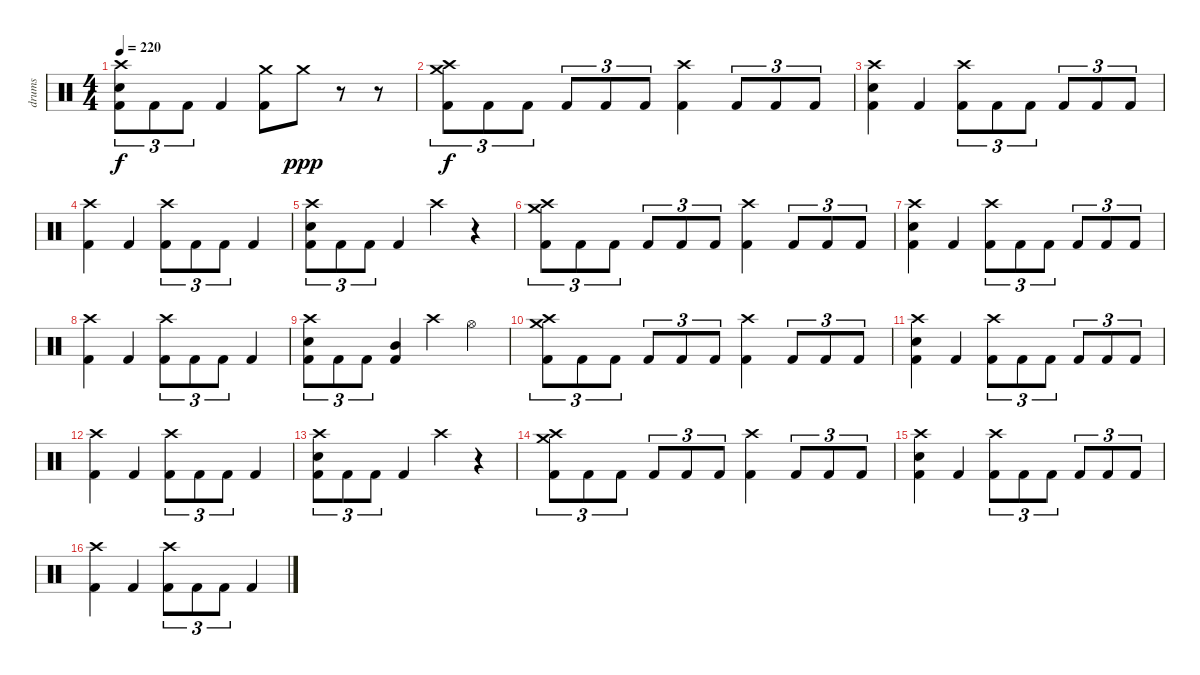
\track ("drums" "drums") {instrument percussion}
\staff {score}
\articulation defaults
\ts (4 4)
\tempo 220
\clef neutral
\ks c
("Crash high (hit)" "Electric Snare (hit)" "Kick (hit) 2").8{tu (3 2) dy f} "Kick (hit) 2".8{tu (3 2)} "Kick (hit) 2".8{tu (3 2)} "Kick (hit) 2".4 ("Crash medium (hit)" "Kick (hit) 2").8 "Crash medium (hit)".8{dy ppp} r.8 r.8 |
("Crash high (hit)" "Crash medium (hit)" "Kick (hit) 2").8{tu (3 2) dy f} "Kick (hit) 2".8{tu (3 2)} "Kick (hit) 2".8{tu (3 2)} "Kick (hit) 2".8{tu (3 2)} "Kick (hit) 2".8{tu (3 2)} "Kick (hit) 2".8{tu (3 2)} ("Crash high (hit)" "Kick (hit) 2").4 "Kick (hit) 2".8{tu (3 2)} "Kick (hit) 2".8{tu (3 2)} "Kick (hit) 2".8{tu (3 2)} |
("Crash high (hit)" "Electric Snare (hit)" "Kick (hit) 2").4 "Kick (hit) 2".4 ("Crash high (hit)" "Kick (hit) 2").8{tu (3 2)} "Kick (hit) 2".8{tu (3 2)} "Kick (hit) 2".8{tu (3 2)} "Kick (hit) 2".8{tu (3 2)} "Kick (hit) 2".8{tu (3 2)} "Kick (hit) 2".8{tu (3 2)} |
("Crash high (hit)" "Kick (hit) 2").4 "Kick (hit) 2".4 ("Crash high (hit)" "Kick (hit) 2").8{tu (3 2)} "Kick (hit) 2".8{tu (3 2)} "Kick (hit) 2".8{tu (3 2)} "Kick (hit) 2".4 |
("Crash high (hit)" "Electric Snare (hit)" "Kick (hit) 2").8{tu (3 2)} "Kick (hit) 2".8{tu (3 2)} "Kick (hit) 2".8{tu (3 2)} "Kick (hit) 2".4 "Crash high (hit)".4 r.4 |
("Crash high (hit)" "Crash medium (hit)" "Kick (hit) 2").8{tu (3 2)} "Kick (hit) 2".8{tu (3 2)} "Kick (hit) 2".8{tu (3 2)} "Kick (hit) 2".8{tu (3 2)} "Kick (hit) 2".8{tu (3 2)} "Kick (hit) 2".8{tu (3 2)} ("Crash high (hit)" "Kick (hit) 2").4 "Kick (hit) 2".8{tu (3 2)} "Kick (hit) 2".8{tu (3 2)} "Kick (hit) 2".8{tu (3 2)} |
("Crash high (hit)" "Electric Snare (hit)" "Kick (hit) 2").4 "Kick (hit) 2".4 ("Crash high (hit)" "Kick (hit) 2").8{tu (3 2)} "Kick (hit) 2".8{tu (3 2)} "Kick (hit) 2".8{tu (3 2)} "Kick (hit) 2".8{tu (3 2)} "Kick (hit) 2".8{tu (3 2)} "Kick (hit) 2".8{tu (3 2)} |
("Crash high (hit)" "Kick (hit) 2").4 "Kick (hit) 2".4 ("Crash high (hit)" "Kick (hit) 2").8{tu (3 2)} "Kick (hit) 2".8{tu (3 2)} "Kick (hit) 2".8{tu (3 2)} "Kick (hit) 2".4 |
("Crash high (hit)" "Electric Snare (hit)" "Kick (hit) 2").8{tu (3 2)} "Kick (hit) 2".8{tu (3 2)} "Kick (hit) 2".8{tu (3 2)} ("Mid Tom (hit)" "Kick (hit) 2").4 "Crash high (hit)".4 "Hi-Hat (open)".4 |
("Crash high (hit)" "Crash medium (hit)" "Kick (hit) 2").8{tu (3 2)} "Kick (hit) 2".8{tu (3 2)} "Kick (hit) 2".8{tu (3 2)} "Kick (hit) 2".8{tu (3 2)} "Kick (hit) 2".8{tu (3 2)} "Kick (hit) 2".8{tu (3 2)} ("Crash high (hit)" "Kick (hit) 2").4 "Kick (hit) 2".8{tu (3 2)} "Kick (hit) 2".8{tu (3 2)} "Kick (hit) 2".8{tu (3 2)} |
("Crash high (hit)" "Electric Snare (hit)" "Kick (hit) 2").4 "Kick (hit) 2".4 ("Crash high (hit)" "Kick (hit) 2").8{tu (3 2)} "Kick (hit) 2".8{tu (3 2)} "Kick (hit) 2".8{tu (3 2)} "Kick (hit) 2".8{tu (3 2)} "Kick (hit) 2".8{tu (3 2)} "Kick (hit) 2".8{tu (3 2)} |
("Crash high (hit)" "Kick (hit) 2").4 "Kick (hit) 2".4 ("Crash high (hit)" "Kick (hit) 2").8{tu (3 2)} "Kick (hit) 2".8{tu (3 2)} "Kick (hit) 2".8{tu (3 2)} "Kick (hit) 2".4 |
("Crash high (hit)" "Electric Snare (hit)" "Kick (hit) 2").8{tu (3 2)} "Kick (hit) 2".8{tu (3 2)} "Kick (hit) 2".8{tu (3 2)} "Kick (hit) 2".4 "Crash high (hit)".4 r.4 |
("Crash high (hit)" "Crash medium (hit)" "Kick (hit) 2").8{tu (3 2)} "Kick (hit) 2".8{tu (3 2)} "Kick (hit) 2".8{tu (3 2)} "Kick (hit) 2".8{tu (3 2)} "Kick (hit) 2".8{tu (3 2)} "Kick (hit) 2".8{tu (3 2)} ("Crash high (hit)" "Kick (hit) 2").4 "Kick (hit) 2".8{tu (3 2)} "Kick (hit) 2".8{tu (3 2)} "Kick (hit) 2".8{tu (3 2)} |
("Crash high (hit)" "Electric Snare (hit)" "Kick (hit) 2").4 "Kick (hit) 2".4 ("Crash high (hit)" "Kick (hit) 2").8{tu (3 2)} "Kick (hit) 2".8{tu (3 2)} "Kick (hit) 2".8{tu (3 2)} "Kick (hit) 2".8{tu (3 2)} "Kick (hit) 2".8{tu (3 2)} "Kick (hit) 2".8{tu (3 2)} |
("Crash high (hit)" "Kick (hit) 2").4 "Kick (hit) 2".4 ("Crash high (hit)" "Kick (hit) 2").8{tu (3 2)} "Kick (hit) 2".8{tu (3 2)} "Kick (hit) 2".8{tu (3 2)} "Kick (hit) 2".4
